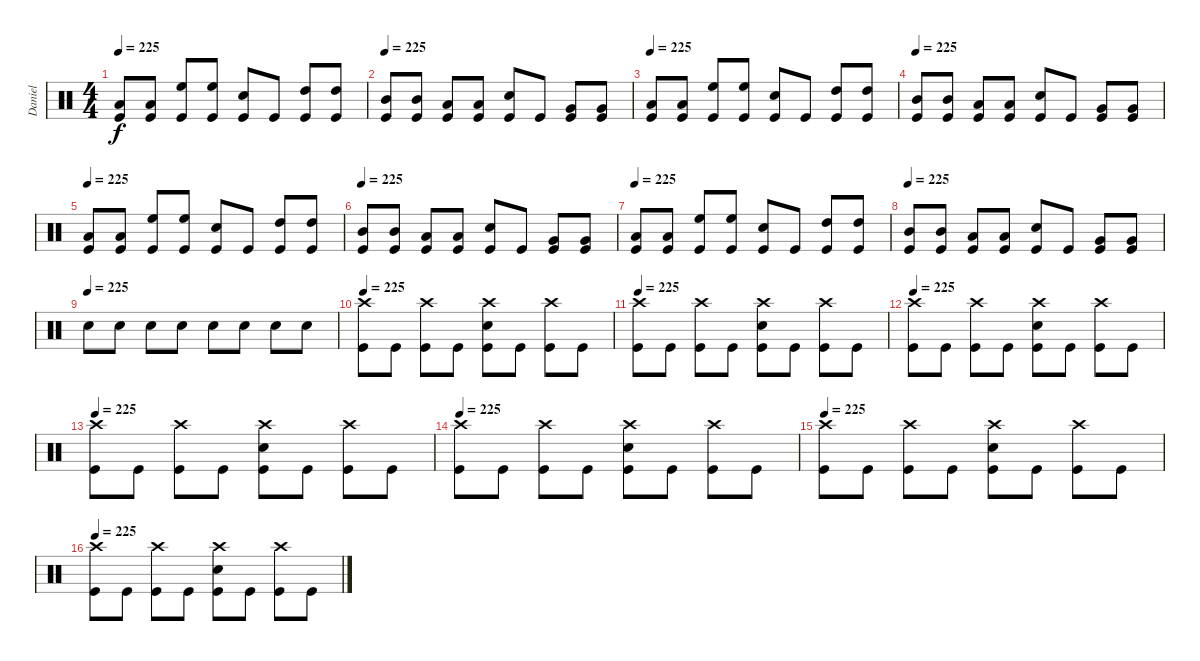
\track ("Daniel" "Daniel") {instrument percussion}
\staff {score}
\articulation defaults
\ts (4 4)
\tempo 225
\clef neutral
\ks c
("Low Floor Tom (hit)" "Kick (hit)").8{dy f} ("Low Floor Tom (hit)" "Kick (hit)").8 ("High Floor Tom (hit)" "Kick (hit)").8 ("High Floor Tom (hit)" "Kick (hit)").8 ("Snare (hit) 2" "Kick (hit)").8 "Kick (hit)".8 ("High Tom (hit)" "Kick (hit)").8 ("High Tom (hit)" "Kick (hit)").8 |
\tempo 225
("Mid Tom (hit)" "Kick (hit)").8 ("Mid Tom (hit)" "Kick (hit)").8 ("Low Tom (hit)" "Kick (hit)").8 ("Low Tom (hit)" "Kick (hit)").8 ("Snare (hit) 2" "Kick (hit)").8 "Kick (hit)".8 ("Very Low Tom (hit)" "Kick (hit)").8 ("Very Low Tom (hit)" "Kick (hit)").8 |
\tempo 225
("Low Floor Tom (hit)" "Kick (hit)").8 ("Low Floor Tom (hit)" "Kick (hit)").8 ("High Floor Tom (hit)" "Kick (hit)").8 ("High Floor Tom (hit)" "Kick (hit)").8 ("Snare (hit) 2" "Kick (hit)").8 "Kick (hit)".8 ("High Tom (hit)" "Kick (hit)").8 ("High Tom (hit)" "Kick (hit)").8 |
\tempo 225
("Mid Tom (hit)" "Kick (hit)").8 ("Mid Tom (hit)" "Kick (hit)").8 ("Low Tom (hit)" "Kick (hit)").8 ("Low Tom (hit)" "Kick (hit)").8 ("Snare (hit) 2" "Kick (hit)").8 "Kick (hit)".8 ("Very Low Tom (hit)" "Kick (hit)").8 ("Very Low Tom (hit)" "Kick (hit)").8 |
\tempo 225
("Low Floor Tom (hit)" "Kick (hit)").8 ("Low Floor Tom (hit)" "Kick (hit)").8 ("High Floor Tom (hit)" "Kick (hit)").8 ("High Floor Tom (hit)" "Kick (hit)").8 ("Snare (hit) 2" "Kick (hit)").8 "Kick (hit)".8 ("High Tom (hit)" "Kick (hit)").8 ("High Tom (hit)" "Kick (hit)").8 |
\tempo 225
("Mid Tom (hit)" "Kick (hit)").8 ("Mid Tom (hit)" "Kick (hit)").8 ("Low Tom (hit)" "Kick (hit)").8 ("Low Tom (hit)" "Kick (hit)").8 ("Snare (hit) 2" "Kick (hit)").8 "Kick (hit)".8 ("Very Low Tom (hit)" "Kick (hit)").8 ("Very Low Tom (hit)" "Kick (hit)").8 |
\tempo 225
("Low Floor Tom (hit)" "Kick (hit)").8 ("Low Floor Tom (hit)" "Kick (hit)").8 ("High Floor Tom (hit)" "Kick (hit)").8 ("High Floor Tom (hit)" "Kick (hit)").8 ("Snare (hit) 2" "Kick (hit)").8 "Kick (hit)".8 ("High Tom (hit)" "Kick (hit)").8 ("High Tom (hit)" "Kick (hit)").8 |
\tempo 225
("Mid Tom (hit)" "Kick (hit)").8 ("Mid Tom (hit)" "Kick (hit)").8 ("Low Tom (hit)" "Kick (hit)").8 ("Low Tom (hit)" "Kick (hit)").8 ("Snare (hit) 2" "Kick (hit)").8 "Kick (hit)".8 ("Very Low Tom (hit)" "Kick (hit)").8 ("Very Low Tom (hit)" "Kick (hit)").8 |
\tempo (225)
"Snare (hit) 2".8 "Snare (hit) 2".8 "Snare (hit) 2".8 "Snare (hit) 2".8 "Snare (hit) 2".8 "Snare (hit) 2".8 "Snare (hit) 2".8 "Snare (hit) 2".8 |
\tempo 225
("Crash high (hit)" "Kick (hit)").8 "Kick (hit)".8 ("Crash high (hit)" "Kick (hit)").8 "Kick (hit)".8 ("Crash high (hit)" "Snare (hit) 2" "Kick (hit)").8 "Kick (hit)".8 ("Crash high (hit)" "Kick (hit)").8 "Kick (hit)".8 |
\tempo 225
("Crash high (hit)" "Kick (hit)").8 "Kick (hit)".8 ("Crash high (hit)" "Kick (hit)").8 "Kick (hit)".8 ("Crash high (hit)" "Snare (hit) 2" "Kick (hit)").8 "Kick (hit)".8 ("Crash high (hit)" "Kick (hit)").8 "Kick (hit)".8 |
\tempo 225
("Crash high (hit)" "Kick (hit)").8 "Kick (hit)".8 ("Crash high (hit)" "Kick (hit)").8 "Kick (hit)".8 ("Crash high (hit)" "Snare (hit) 2" "Kick (hit)").8 "Kick (hit)".8 ("Crash high (hit)" "Kick (hit)").8 "Kick (hit)".8 |
\tempo 225
("Crash high (hit)" "Kick (hit)").8 "Kick (hit)".8 ("Crash high (hit)" "Kick (hit)").8 "Kick (hit)".8 ("Crash high (hit)" "Snare (hit) 2" "Kick (hit)").8 "Kick (hit)".8 ("Crash high (hit)" "Kick (hit)").8 "Kick (hit)".8 |
\tempo 225
("Crash high (hit)" "Kick (hit)").8 "Kick (hit)".8 ("Crash high (hit)" "Kick (hit)").8 "Kick (hit)".8 ("Crash high (hit)" "Snare (hit) 2" "Kick (hit)").8 "Kick (hit)".8 ("Crash high (hit)" "Kick (hit)").8 "Kick (hit)".8 |
\tempo 225
("Crash high (hit)" "Kick (hit)").8 "Kick (hit)".8 ("Crash high (hit)" "Kick (hit)").8 "Kick (hit)".8 ("Crash high (hit)" "Snare (hit) 2" "Kick (hit)").8 "Kick (hit)".8 ("Crash high (hit)" "Kick (hit)").8 "Kick (hit)".8 |
\tempo 225
("Crash high (hit)" "Kick (hit)").8 "Kick (hit)".8 ("Crash high (hit)" "Kick (hit)").8 "Kick (hit)".8 ("Crash high (hit)" "Snare (hit) 2" "Kick (hit)").8 "Kick (hit)".8 ("Crash high (hit)" "Kick (hit)").8 "Kick (hit)".8
